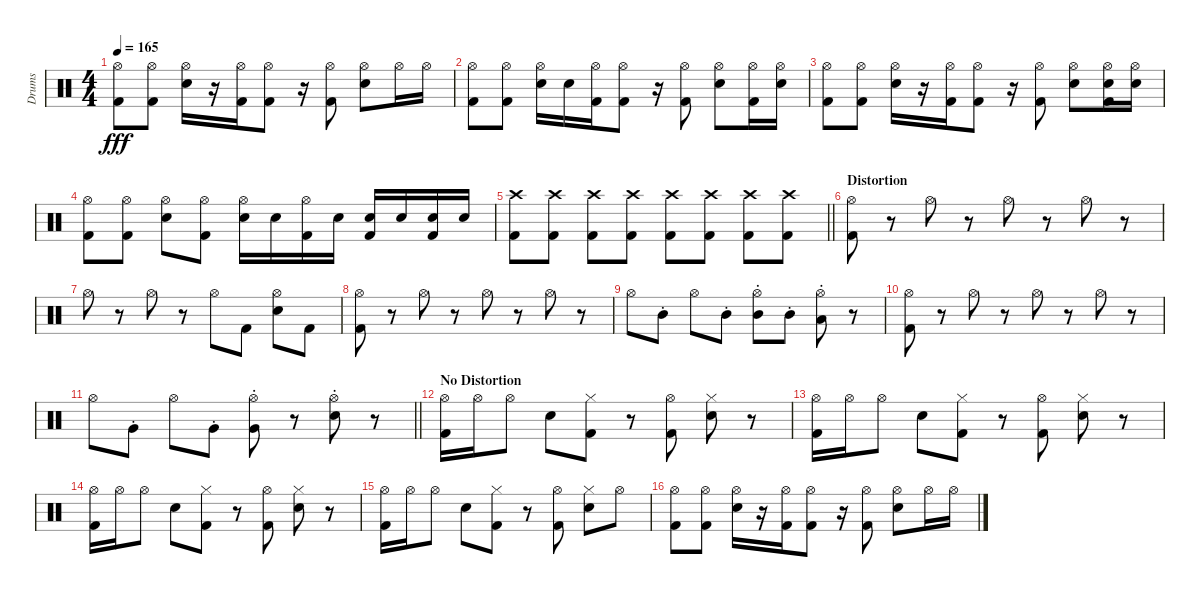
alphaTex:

\track ("Drums" "Drums") {instrument percussion}
\staff {score}
\articulation defaults
\ts (4 4)
\tempo 165
\clef neutral
\ks c
("Hi-Hat (open)" "Kick (hit) 2").8{dy fff} ("Hi-Hat (open)" "Kick (hit) 2").8 ("Hi-Hat (open)" "Snare (hit) 2").16 r.16 ("Hi-Hat (open)" "Kick (hit) 2").16 ("Hi-Hat (open)" "Kick (hit) 2").8 r.16 ("Hi-Hat (open)" "Kick (hit) 2").8 ("Hi-Hat (open)" "Snare (hit) 2").8 "Hi-Hat (open)".16 "Hi-Hat (open)".16 |
("Hi-Hat (open)" "Kick (hit) 2").8 ("Hi-Hat (open)" "Kick (hit) 2").8 ("Hi-Hat (open)" "Snare (hit) 2").16 "Snare (hit) 2".16 ("Hi-Hat (open)" "Kick (hit) 2").16 ("Hi-Hat (open)" "Kick (hit) 2").8 r.16 ("Hi-Hat (open)" "Kick (hit) 2").8 ("Hi-Hat (open)" "Snare (hit) 2").8 ("Hi-Hat (open)" "Kick (hit) 2").16 ("Hi-Hat (open)" "Snare (hit) 2").16 |
("Hi-Hat (open)" "Kick (hit) 2").8 ("Hi-Hat (open)" "Kick (hit) 2").8 ("Hi-Hat (open)" "Snare (hit) 2").16 r.16 ("Hi-Hat (open)" "Kick (hit) 2").16 ("Hi-Hat (open)" "Kick (hit) 2").8 r.16 ("Hi-Hat (open)" "Kick (hit) 2").8 ("Hi-Hat (open)" "Snare (hit) 2").8 ("Hi-Hat (open)" "Snare (hit) 2" "Kick (hit) 2").16 ("Hi-Hat (open)" "Snare (hit) 2").16 |
("Hi-Hat (open)" "Kick (hit) 2").8 ("Hi-Hat (open)" "Kick (hit) 2").8 ("Hi-Hat (open)" "Snare (hit) 2").8 ("Hi-Hat (open)" "Kick (hit) 2").8 ("Hi-Hat (open)" "Snare (hit) 2").16 "Snare (hit) 2".16 ("Hi-Hat (open)" "Kick (hit) 2").16 "Snare (hit) 2".16 ("Snare (hit) 2" "Kick (hit) 2").16 "Snare (hit) 2".16 ("Snare (hit) 2" "Kick (hit) 2").16 "Snare (hit) 2".16 |
\barLineRight lightlight
("Crash high (hit)" "Kick (hit) 2").8 ("Crash high (hit)" "Kick (hit) 2").8 ("Crash high (hit)" "Kick (hit) 2").8 ("Crash high (hit)" "Kick (hit) 2").8 ("Crash high (hit)" "Kick (hit) 2").8 ("Crash high (hit)" "Kick (hit) 2").8 ("Crash high (hit)" "Kick (hit) 2").8 ("Crash high (hit)" "Kick (hit) 2").8 |
\section ("" "Distortion")
("Hi-Hat (open)" "Kick (hit) 2").8 r.8 "Hi-Hat (open)".8 r.8 "Hi-Hat (open)".8 r.8 "Hi-Hat (open)".8 r.8 |
"Hi-Hat (open)".8 r.8 "Hi-Hat (open)".8 r.8 "Hi-Hat (open)".8 "Kick (hit) 2".8 ("Hi-Hat (open)" "Snare (hit) 2").8 "Kick (hit) 2".8 |
("Hi-Hat (open)" "Kick (hit) 2").8 r.8 "Hi-Hat (open)".8 r.8 "Hi-Hat (open)".8 r.8 "Hi-Hat (open)".8 r.8 |
"Hi-Hat (open)".8 "Mid Tom (hit)"{st}.8 "Hi-Hat (open)".8 "Mid Tom (hit)"{st}.8 ("Hi-Hat (open)" "Mid Tom (hit)"{st}).8 "Mid Tom (hit)"{st}.8 ("Hi-Hat (open)" "Low Tom (hit)"{st}).8 r.8 |
("Hi-Hat (open)" "Kick (hit) 2").8 r.8 "Hi-Hat (open)".8 r.8 "Hi-Hat (open)".8 r.8 "Hi-Hat (open)".8 r.8 |
\barLineRight lightlight "Hi-Hat (open)".8 "Very Low Tom (hit)"{st}.8 "Hi-Hat (open)".8 "Very Low Tom (hit)"{st}.8
("Hi-Hat (open)" "Very Low Tom (hit)"{st}).8 r.8 ("Hi-Hat (open)" "Snare (hit) 2"{st}).8 r.8 |
\section ("" "No Distortion")
("Hi-Hat (open)" "Kick (hit) 2").16 "Hi-Hat (open)".16 "Hi-Hat (open)".8 "Snare (hit) 2".8 ("Hi-Hat (closed)" "Kick (hit) 2").8 r.8 ("Hi-Hat (open)" "Kick (hit) 2").8 ("Hi-Hat (closed)" "Snare (hit) 2").8 r.8 |
("Hi-Hat (open)" "Kick (hit) 2").16 "Hi-Hat (open)".16 "Hi-Hat (open)".8 "Snare (hit) 2".8 ("Hi-Hat (closed)" "Kick (hit) 2").8 r.8 ("Hi-Hat (open)" "Kick (hit) 2").8 ("Hi-Hat (closed)" "Snare (hit) 2").8 r.8 |
("Hi-Hat (open)" "Kick (hit) 2").16 "Hi-Hat (open)".16 "Hi-Hat (open)".8 "Snare (hit) 2".8 ("Hi-Hat (closed)" "Kick (hit) 2").8 r.8 ("Hi-Hat (open)" "Kick (hit) 2").8 ("Hi-Hat (closed)" "Snare (hit) 2").8 r.8 |
("Hi-Hat (open)" "Kick (hit) 2").16 "Hi-Hat (open)".16 "Hi-Hat (open)".8 "Snare (hit) 2".8 ("Hi-Hat (closed)" "Kick (hit) 2").8 r.8 ("Hi-Hat (open)" "Kick (hit) 2").8 ("Hi-Hat (closed)" "Snare (hit) 2").8 "Hi-Hat (open)".8 |
("Hi-Hat (open)" "Kick (hit) 2").8 ("Hi-Hat (open)" "Kick (hit) 2").8 ("Hi-Hat (open)" "Snare (hit) 2").16 r.16 ("Hi-Hat (open)" "Kick (hit) 2").16 ("Hi-Hat (open)" "Kick (hit) 2").8 r.16 ("Hi-Hat (open)" "Kick (hit) 2").8 ("Hi-Hat (open)" "Snare (hit) 2").8 "Hi-Hat (open)".16 "Hi-Hat (open)".16
